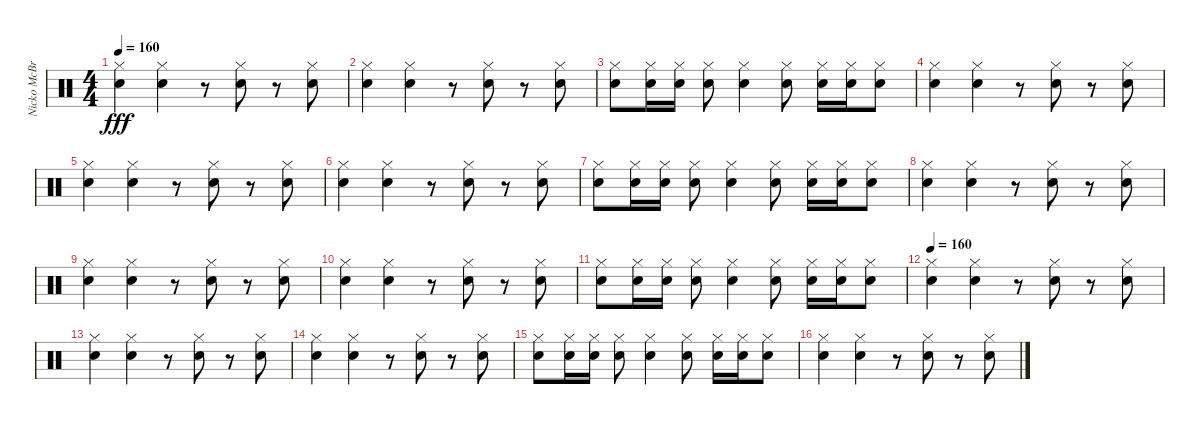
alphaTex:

\track ("Nicko McBrain" "Nicko McBr") {instrument percussion}
\staff {score}
\articulation defaults
\ts (4 4)
\tempo 160
\clef neutral
\ks c
("Hi-Hat (closed)" "Snare (hit) 2").4{dy fff} ("Hi-Hat (closed)" "Snare (hit) 2").4 r.8 ("Hi-Hat (closed)" "Snare (hit) 2").8 r.8 ("Hi-Hat (closed)" "Snare (hit) 2").8 |
("Hi-Hat (closed)" "Snare (hit) 2").4 ("Hi-Hat (closed)" "Snare (hit) 2").4 r.8 ("Hi-Hat (closed)" "Snare (hit) 2").8 r.8 ("Hi-Hat (closed)" "Snare (hit) 2").8 |
("Hi-Hat (closed)" "Snare (hit) 2").8 ("Hi-Hat (closed)" "Snare (hit) 2").16 ("Hi-Hat (closed)" "Snare (hit) 2").16 ("Hi-Hat (closed)" "Snare (hit) 2").8 ("Hi-Hat (closed)" "Snare (hit) 2").4 ("Hi-Hat (closed)" "Snare (hit) 2").8 ("Hi-Hat (closed)" "Snare (hit) 2").16 ("Hi-Hat (closed)" "Snare (hit) 2").16 ("Hi-Hat (closed)" "Snare (hit) 2").8 |
("Hi-Hat (closed)" "Snare (hit) 2").4 ("Hi-Hat (closed)" "Snare (hit) 2").4 r.8 ("Hi-Hat (closed)" "Snare (hit) 2").8 r.8 ("Hi-Hat (closed)" "Snare (hit) 2").8 |
("Hi-Hat (closed)" "Snare (hit) 2").4 ("Hi-Hat (closed)" "Snare (hit) 2").4 r.8 ("Hi-Hat (closed)" "Snare (hit) 2").8 r.8 ("Hi-Hat (closed)" "Snare (hit) 2").8 |
("Hi-Hat (closed)" "Snare (hit) 2").4 ("Hi-Hat (closed)" "Snare (hit) 2").4 r.8 ("Hi-Hat (closed)" "Snare (hit) 2").8 r.8 ("Hi-Hat (closed)" "Snare (hit) 2").8 |
("Hi-Hat (closed)" "Snare (hit) 2").8 ("Hi-Hat (closed)" "Snare (hit) 2").16 ("Hi-Hat (closed)" "Snare (hit) 2").16 ("Hi-Hat (closed)" "Snare (hit) 2").8 ("Hi-Hat (closed)" "Snare (hit) 2").4 ("Hi-Hat (closed)" "Snare (hit) 2").8 ("Hi-Hat (closed)" "Snare (hit) 2").16 ("Hi-Hat (closed)" "Snare (hit) 2").16 ("Hi-Hat (closed)" "Snare (hit) 2").8 |
("Hi-Hat (closed)" "Snare (hit) 2").4 ("Hi-Hat (closed)" "Snare (hit) 2").4 r.8 ("Hi-Hat (closed)" "Snare (hit) 2").8 r.8 ("Hi-Hat (closed)" "Snare (hit) 2").8 |
("Hi-Hat (closed)" "Snare (hit) 2").4 ("Hi-Hat (closed)" "Snare (hit) 2").4 r.8 ("Hi-Hat (closed)" "Snare (hit) 2").8 r.8 ("Hi-Hat (closed)" "Snare (hit) 2").8 |
("Hi-Hat (closed)" "Snare (hit) 2").4 ("Hi-Hat (closed)" "Snare (hit) 2").4 r.8 ("Hi-Hat (closed)" "Snare (hit) 2").8 r.8 ("Hi-Hat (closed)" "Snare (hit) 2").8 |
("Hi-Hat (closed)" "Snare (hit) 2").8 ("Hi-Hat (closed)" "Snare (hit) 2").16 ("Hi-Hat (closed)" "Snare (hit) 2").16 ("Hi-Hat (closed)" "Snare (hit) 2").8 ("Hi-Hat (closed)" "Snare (hit) 2").4 ("Hi-Hat (closed)" "Snare (hit) 2").8 ("Hi-Hat (closed)" "Snare (hit) 2").16 ("Hi-Hat (closed)" "Snare (hit) 2").16 ("Hi-Hat (closed)" "Snare (hit) 2").8 |
\tempo 160
("Hi-Hat (closed)" "Snare (hit) 2").4 ("Hi-Hat (closed)" "Snare (hit) 2").4 r.8 ("Hi-Hat (closed)" "Snare (hit) 2").8 r.8 ("Hi-Hat (closed)" "Snare (hit) 2").8 |
("Hi-Hat (closed)" "Snare (hit) 2").4 ("Hi-Hat (closed)" "Snare (hit) 2").4 r.8 ("Hi-Hat (closed)" "Snare (hit) 2").8 r.8 ("Hi-Hat (closed)" "Snare (hit) 2").8 |
("Hi-Hat (closed)" "Snare (hit) 2").4 ("Hi-Hat (closed)" "Snare (hit) 2").4 r.8 ("Hi-Hat (closed)" "Snare (hit) 2").8 r.8 ("Hi-Hat (closed)" "Snare (hit) 2").8 |
("Hi-Hat (closed)" "Snare (hit) 2").8 ("Hi-Hat (closed)" "Snare (hit) 2").16 ("Hi-Hat (closed)" "Snare (hit) 2").16 ("Hi-Hat (closed)" "Snare (hit) 2").8 ("Hi-Hat (closed)" "Snare (hit) 2").4 ("Hi-Hat (closed)" "Snare (hit) 2").8 ("Hi-Hat (closed)" "Snare (hit) 2").16 ("Hi-Hat (closed)" "Snare (hit) 2").16 ("Hi-Hat (closed)" "Snare (hit) 2").8 |
("Hi-Hat (closed)" "Snare (hit) 2").4 ("Hi-Hat (closed)" "Snare (hit) 2").4 r.8 ("Hi-Hat (closed)" "Snare (hit) 2").8 r.8 ("Hi-Hat (closed)" "Snare (hit) 2").8
